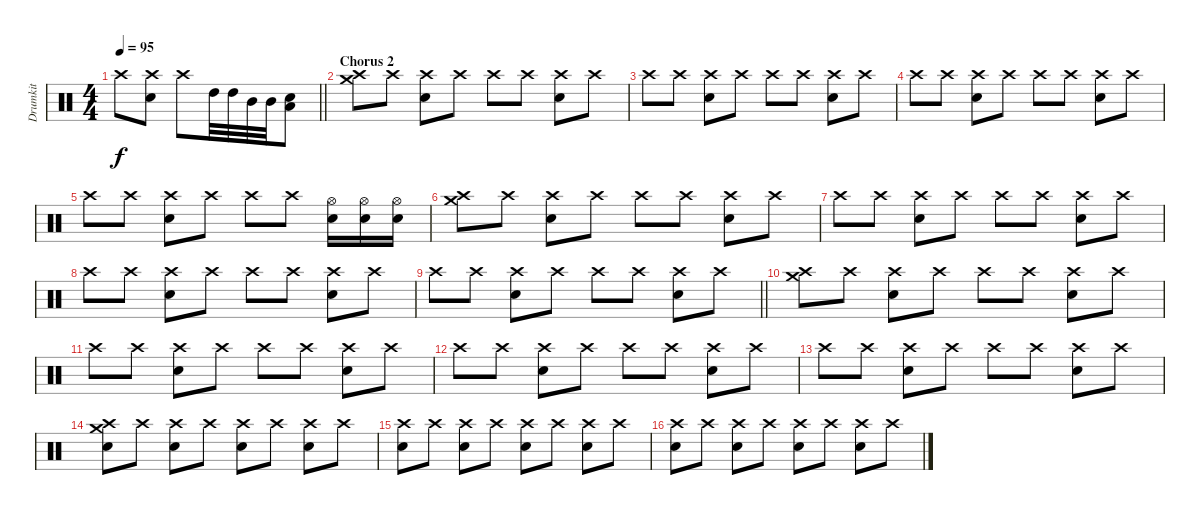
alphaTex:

\track ("Drumkit" "Drumkit") {instrument percussion}
\staff {score}
\articulation defaults
\ts (4 4)
\tempo 95
\clef neutral
\barLineRight lightlight
\ks c "Crash high (hit)".8{dy f beam merge}
("Crash high (hit)" "Electric Snare (hit)").8 "Crash high (hit)".8{beam merge} "High Tom (hit)".32 "High Tom (hit)".32 "Mid Tom (hit)".32 "Mid Tom (hit)".32{beam merge} ("Low Floor Tom (hit)" "Electric Snare (hit)").8 |
\section ("" "Chorus 2")
("Crash medium (hit)" "Crash high (hit)").8 "Crash high (hit)".8 ("Crash high (hit)" "Electric Snare (hit)").8{beam merge} "Crash high (hit)".8 "Crash high (hit)".8{beam merge} "Crash high (hit)".8 ("Crash high (hit)" "Electric Snare (hit)").8 "Crash high (hit)".8 |
"Crash high (hit)".8 "Crash high (hit)".8 ("Crash high (hit)" "Electric Snare (hit)").8{beam merge} "Crash high (hit)".8 "Crash high (hit)".8{beam merge} "Crash high (hit)".8 ("Crash high (hit)" "Electric Snare (hit)").8 "Crash high (hit)".8 |
"Crash high (hit)".8 "Crash high (hit)".8 ("Crash high (hit)" "Electric Snare (hit)").8{beam merge} "Crash high (hit)".8 "Crash high (hit)".8{beam merge} "Crash high (hit)".8 ("Crash high (hit)" "Electric Snare (hit)").8 "Crash high (hit)".8 |
"Crash high (hit)".8 "Crash high (hit)".8 ("Crash high (hit)" "Electric Snare (hit)").8{beam merge} "Crash high (hit)".8 "Crash high (hit)".8{beam merge} "Crash high (hit)".8 ("Hi-Hat (open)" "Electric Snare (hit)").16 ("Hi-Hat (open)" "Electric Snare (hit)").16 ("Hi-Hat (open)" "Electric Snare (hit)").16 |
("Crash medium (hit)" "Crash high (hit)").8 "Crash high (hit)".8 ("Crash high (hit)" "Electric Snare (hit)").8{beam merge} "Crash high (hit)".8 "Crash high (hit)".8{beam merge} "Crash high (hit)".8 ("Crash high (hit)" "Electric Snare (hit)").8 "Crash high (hit)".8 |
"Crash high (hit)".8 "Crash high (hit)".8 ("Crash high (hit)" "Electric Snare (hit)").8{beam merge} "Crash high (hit)".8 "Crash high (hit)".8{beam merge} "Crash high (hit)".8 ("Crash high (hit)" "Electric Snare (hit)").8 "Crash high (hit)".8 |
"Crash high (hit)".8 "Crash high (hit)".8 ("Crash high (hit)" "Electric Snare (hit)").8{beam merge} "Crash high (hit)".8 "Crash high (hit)".8{beam merge} "Crash high (hit)".8 ("Crash high (hit)" "Electric Snare (hit)").8 "Crash high (hit)".8 |
\barLineRight lightlight "Crash high (hit)".8 "Crash high (hit)".8
("Crash high (hit)" "Electric Snare (hit)").8{beam merge} "Crash high (hit)".8 "Crash high (hit)".8{beam merge} "Crash high (hit)".8 ("Crash high (hit)" "Electric Snare (hit)").8 "Crash high (hit)".8 |
("Crash medium (hit)" "Crash high (hit)").8 "Crash high (hit)".8 ("Crash high (hit)" "Electric Snare (hit)").8{beam merge} "Crash high (hit)".8 "Crash high (hit)".8{beam merge} "Crash high (hit)".8 ("Crash high (hit)" "Electric Snare (hit)").8 "Crash high (hit)".8 |
"Crash high (hit)".8 "Crash high (hit)".8 ("Crash high (hit)" "Electric Snare (hit)").8{beam merge} "Crash high (hit)".8 "Crash high (hit)".8{beam merge} "Crash high (hit)".8 ("Crash high (hit)" "Electric Snare (hit)").8 "Crash high (hit)".8 |
"Crash high (hit)".8 "Crash high (hit)".8 ("Crash high (hit)" "Electric Snare (hit)").8{beam merge} "Crash high (hit)".8 "Crash high (hit)".8{beam merge} "Crash high (hit)".8 ("Crash high (hit)" "Electric Snare (hit)").8 "Crash high (hit)".8 |
"Crash high (hit)".8 "Crash high (hit)".8 ("Crash high (hit)" "Electric Snare (hit)").8{beam merge} "Crash high (hit)".8 "Crash high (hit)".8{beam merge} "Crash high (hit)".8 ("Crash high (hit)" "Electric Snare (hit)").8 "Crash high (hit)".8 |
("Crash medium (hit)" "Crash high (hit)" "Electric Snare (hit)").8 "Crash high (hit)".8 ("Crash high (hit)" "Electric Snare (hit)").8{beam merge} "Crash high (hit)".8 ("Crash high (hit)" "Electric Snare (hit)").8{beam merge} "Crash high (hit)".8 ("Crash high (hit)" "Electric Snare (hit)").8 "Crash high (hit)".8 |
("Crash high (hit)" "Electric Snare (hit)").8 "Crash high (hit)".8 ("Crash high (hit)" "Electric Snare (hit)").8{beam merge} "Crash high (hit)".8 ("Crash high (hit)" "Electric Snare (hit)").8{beam merge} "Crash high (hit)".8 ("Crash high (hit)" "Electric Snare (hit)").8 "Crash high (hit)".8 |
("Crash high (hit)" "Electric Snare (hit)").8 "Crash high (hit)".8 ("Crash high (hit)" "Electric Snare (hit)").8{beam merge} "Crash high (hit)".8 ("Crash high (hit)" "Electric Snare (hit)").8{beam merge} "Crash high (hit)".8 ("Crash high (hit)" "Electric Snare (hit)").8 "Crash high (hit)".8
